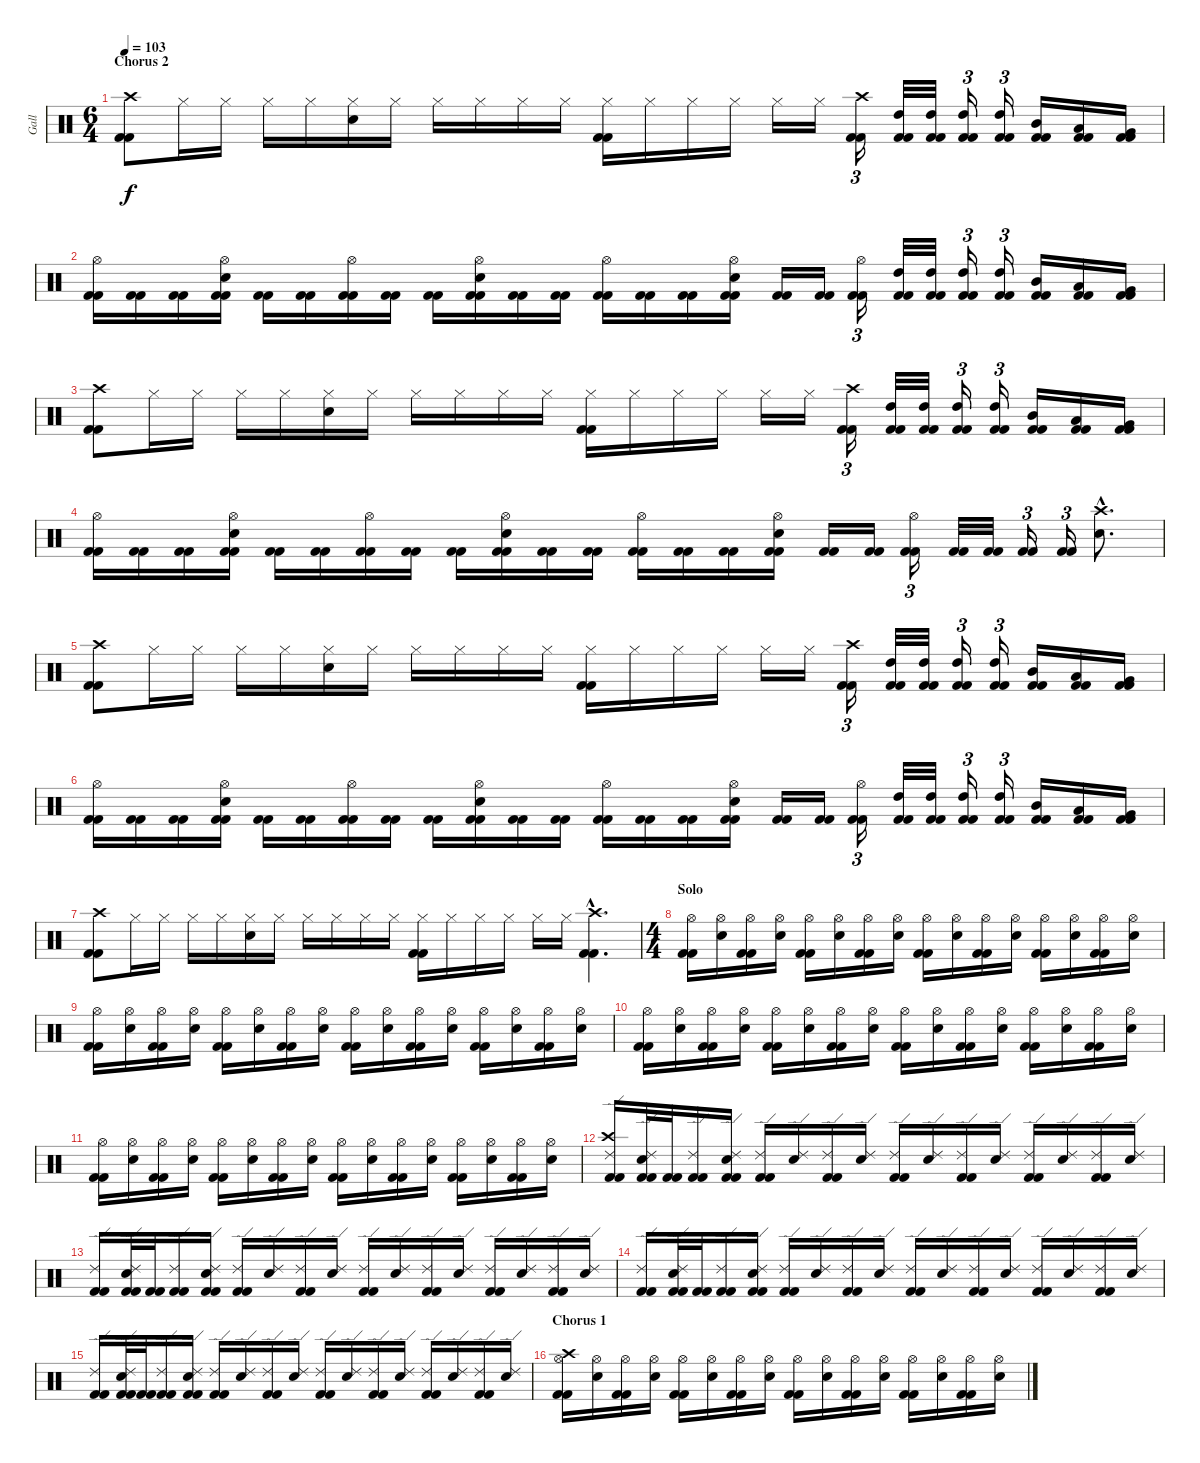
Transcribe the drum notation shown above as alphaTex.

\track ("Gall" "Gall") {instrument percussion}
\staff {score}
\articulation defaults
\ts (6 4)
\section ("" "Chorus 2")
\tempo 103
\clef neutral
\ks c
("Kick (hit) 2" "Kick (hit) 2" "Crash high (hit)").8{dy f} "Hi-Hat (closed)".16 "Hi-Hat (closed)".16 "Hi-Hat (closed)".16 "Hi-Hat (closed)".16 ("Snare (hit) 2" "Hi-Hat (closed)").16 "Hi-Hat (closed)".16 "Hi-Hat (closed)".16 "Hi-Hat (closed)".16 "Hi-Hat (closed)".16 "Hi-Hat (closed)".16 ("Kick (hit) 2" "Kick (hit) 2" "Hi-Hat (closed)").16 "Hi-Hat (closed)".16 "Hi-Hat (closed)".16 "Hi-Hat (closed)".16 "Hi-Hat (closed)".16 "Hi-Hat (closed)".16 ("Kick (hit) 2" "Kick (hit) 2" "Crash high (hit)").16{tu (3 2)} ("Kick (hit) 2" "Kick (hit) 2" "High Tom (hit)").32 ("Kick (hit) 2" "Kick (hit) 2" "High Tom (hit)").32 ("Kick (hit) 2" "Kick (hit) 2" "High Tom (hit)").16{tu (3 2)} ("Kick (hit) 2" "Kick (hit) 2" "High Tom (hit)").16{tu (3 2)} ("Kick (hit) 2" "Kick (hit) 2" "Mid Tom (hit)").16 ("Kick (hit) 2" "Kick (hit) 2" "Low Tom (hit)").16 ("Kick (hit) 2" "Kick (hit) 2" "Very Low Tom (hit)").16 |
("Kick (hit) 2" "Kick (hit) 2" "Hi-Hat (open)").16 ("Kick (hit) 2" "Kick (hit) 2").16 ("Kick (hit) 2" "Kick (hit) 2").16 ("Kick (hit) 2" "Kick (hit) 2" "Snare (hit) 2" "Hi-Hat (open)").16 ("Kick (hit) 2" "Kick (hit) 2").16 ("Kick (hit) 2" "Kick (hit) 2").16 ("Kick (hit) 2" "Kick (hit) 2" "Hi-Hat (open)").16 ("Kick (hit) 2" "Kick (hit) 2").16 ("Kick (hit) 2" "Kick (hit) 2").16 ("Kick (hit) 2" "Kick (hit) 2" "Snare (hit) 2" "Hi-Hat (open)").16 ("Kick (hit) 2" "Kick (hit) 2").16 ("Kick (hit) 2" "Kick (hit) 2").16 ("Kick (hit) 2" "Kick (hit) 2" "Hi-Hat (open)").16 ("Kick (hit) 2" "Kick (hit) 2").16 ("Kick (hit) 2" "Kick (hit) 2").16 ("Kick (hit) 2" "Kick (hit) 2" "Snare (hit) 2" "Hi-Hat (open)").16 ("Kick (hit) 2" "Kick (hit) 2").16 ("Kick (hit) 2" "Kick (hit) 2").16 ("Kick (hit) 2" "Kick (hit) 2" "Hi-Hat (open)").16{tu (3 2)} ("Kick (hit) 2" "Kick (hit) 2" "High Tom (hit)").32 ("Kick (hit) 2" "Kick (hit) 2" "High Tom (hit)").32 ("Kick (hit) 2" "Kick (hit) 2" "High Tom (hit)").16{tu (3 2)} ("Kick (hit) 2" "Kick (hit) 2" "High Tom (hit)").16{tu (3 2)} ("Kick (hit) 2" "Kick (hit) 2" "Mid Tom (hit)").16 ("Kick (hit) 2" "Kick (hit) 2" "Low Tom (hit)").16 ("Kick (hit) 2" "Kick (hit) 2" "Very Low Tom (hit)").16 |
("Kick (hit) 2" "Kick (hit) 2" "Crash high (hit)").8 "Hi-Hat (closed)".16 "Hi-Hat (closed)".16 "Hi-Hat (closed)".16 "Hi-Hat (closed)".16 ("Snare (hit) 2" "Hi-Hat (closed)").16 "Hi-Hat (closed)".16 "Hi-Hat (closed)".16 "Hi-Hat (closed)".16 "Hi-Hat (closed)".16 "Hi-Hat (closed)".16 ("Kick (hit) 2" "Kick (hit) 2" "Hi-Hat (closed)").16 "Hi-Hat (closed)".16 "Hi-Hat (closed)".16 "Hi-Hat (closed)".16 "Hi-Hat (closed)".16 "Hi-Hat (closed)".16 ("Kick (hit) 2" "Kick (hit) 2" "Crash high (hit)").16{tu (3 2)} ("Kick (hit) 2" "Kick (hit) 2" "High Tom (hit)").32 ("Kick (hit) 2" "Kick (hit) 2" "High Tom (hit)").32 ("Kick (hit) 2" "Kick (hit) 2" "High Tom (hit)").16{tu (3 2)} ("Kick (hit) 2" "Kick (hit) 2" "High Tom (hit)").16{tu (3 2)} ("Kick (hit) 2" "Kick (hit) 2" "Mid Tom (hit)").16 ("Kick (hit) 2" "Kick (hit) 2" "Low Tom (hit)").16 ("Kick (hit) 2" "Kick (hit) 2" "Very Low Tom (hit)").16 |
("Kick (hit) 2" "Kick (hit) 2" "Hi-Hat (open)").16 ("Kick (hit) 2" "Kick (hit) 2").16 ("Kick (hit) 2" "Kick (hit) 2").16 ("Kick (hit) 2" "Kick (hit) 2" "Snare (hit) 2" "Hi-Hat (open)").16 ("Kick (hit) 2" "Kick (hit) 2").16 ("Kick (hit) 2" "Kick (hit) 2").16 ("Kick (hit) 2" "Kick (hit) 2" "Hi-Hat (open)").16 ("Kick (hit) 2" "Kick (hit) 2").16 ("Kick (hit) 2" "Kick (hit) 2").16 ("Kick (hit) 2" "Kick (hit) 2" "Snare (hit) 2" "Hi-Hat (open)").16 ("Kick (hit) 2" "Kick (hit) 2").16 ("Kick (hit) 2" "Kick (hit) 2").16 ("Kick (hit) 2" "Kick (hit) 2" "Hi-Hat (open)").16 ("Kick (hit) 2" "Kick (hit) 2").16 ("Kick (hit) 2" "Kick (hit) 2").16 ("Kick (hit) 2" "Kick (hit) 2" "Snare (hit) 2" "Hi-Hat (open)").16 ("Kick (hit) 2" "Kick (hit) 2").16 ("Kick (hit) 2" "Kick (hit) 2").16 ("Kick (hit) 2" "Kick (hit) 2" "Hi-Hat (open)").16{tu (3 2)} ("Kick (hit) 2" "Kick (hit) 2").32 ("Kick (hit) 2" "Kick (hit) 2").32 ("Kick (hit) 2" "Kick (hit) 2").16{tu (3 2)} ("Kick (hit) 2" "Kick (hit) 2").16{tu (3 2)} ("Snare (hit) 2"{hac} "Crash high (hit)"{hac}).8{d} |
("Kick (hit) 2" "Kick (hit) 2" "Crash high (hit)").8 "Hi-Hat (closed)".16 "Hi-Hat (closed)".16 "Hi-Hat (closed)".16 "Hi-Hat (closed)".16 ("Snare (hit) 2" "Hi-Hat (closed)").16 "Hi-Hat (closed)".16 "Hi-Hat (closed)".16 "Hi-Hat (closed)".16 "Hi-Hat (closed)".16 "Hi-Hat (closed)".16 ("Kick (hit) 2" "Kick (hit) 2" "Hi-Hat (closed)").16 "Hi-Hat (closed)".16 "Hi-Hat (closed)".16 "Hi-Hat (closed)".16 "Hi-Hat (closed)".16 "Hi-Hat (closed)".16 ("Kick (hit) 2" "Kick (hit) 2" "Crash high (hit)").16{tu (3 2)} ("Kick (hit) 2" "Kick (hit) 2" "High Tom (hit)").32 ("Kick (hit) 2" "Kick (hit) 2" "High Tom (hit)").32 ("Kick (hit) 2" "Kick (hit) 2" "High Tom (hit)").16{tu (3 2)} ("Kick (hit) 2" "Kick (hit) 2" "High Tom (hit)").16{tu (3 2)} ("Kick (hit) 2" "Kick (hit) 2" "Mid Tom (hit)").16 ("Kick (hit) 2" "Kick (hit) 2" "Low Tom (hit)").16 ("Kick (hit) 2" "Kick (hit) 2" "Very Low Tom (hit)").16 |
("Kick (hit) 2" "Kick (hit) 2" "Hi-Hat (open)").16 ("Kick (hit) 2" "Kick (hit) 2").16 ("Kick (hit) 2" "Kick (hit) 2").16 ("Kick (hit) 2" "Kick (hit) 2" "Snare (hit) 2" "Hi-Hat (open)").16 ("Kick (hit) 2" "Kick (hit) 2").16 ("Kick (hit) 2" "Kick (hit) 2").16 ("Kick (hit) 2" "Kick (hit) 2" "Hi-Hat (open)").16 ("Kick (hit) 2" "Kick (hit) 2").16 ("Kick (hit) 2" "Kick (hit) 2").16 ("Kick (hit) 2" "Kick (hit) 2" "Snare (hit) 2" "Hi-Hat (open)").16 ("Kick (hit) 2" "Kick (hit) 2").16 ("Kick (hit) 2" "Kick (hit) 2").16 ("Kick (hit) 2" "Kick (hit) 2" "Hi-Hat (open)").16 ("Kick (hit) 2" "Kick (hit) 2").16 ("Kick (hit) 2" "Kick (hit) 2").16 ("Kick (hit) 2" "Kick (hit) 2" "Snare (hit) 2" "Hi-Hat (open)").16 ("Kick (hit) 2" "Kick (hit) 2").16 ("Kick (hit) 2" "Kick (hit) 2").16 ("Kick (hit) 2" "Kick (hit) 2" "Hi-Hat (open)").16{tu (3 2)} ("Kick (hit) 2" "Kick (hit) 2" "High Tom (hit)").32 ("Kick (hit) 2" "Kick (hit) 2" "High Tom (hit)").32 ("Kick (hit) 2" "Kick (hit) 2" "High Tom (hit)").16{tu (3 2)} ("Kick (hit) 2" "Kick (hit) 2" "High Tom (hit)").16{tu (3 2)} ("Kick (hit) 2" "Kick (hit) 2" "Mid Tom (hit)").16 ("Kick (hit) 2" "Kick (hit) 2" "Low Tom (hit)").16 ("Kick (hit) 2" "Kick (hit) 2" "Very Low Tom (hit)").16 |
("Kick (hit) 2" "Kick (hit) 2" "Crash high (hit)").8 "Hi-Hat (closed)".16 "Hi-Hat (closed)".16 "Hi-Hat (closed)".16 "Hi-Hat (closed)".16 ("Snare (hit) 2" "Hi-Hat (closed)").16 "Hi-Hat (closed)".16 "Hi-Hat (closed)".16 "Hi-Hat (closed)".16 "Hi-Hat (closed)".16 "Hi-Hat (closed)".16 ("Kick (hit) 2" "Kick (hit) 2" "Hi-Hat (closed)").16 "Hi-Hat (closed)".16 "Hi-Hat (closed)".16 "Hi-Hat (closed)".16 "Hi-Hat (closed)".16 "Hi-Hat (closed)".16 ("Kick (hit) 2"{hac} "Kick (hit) 2"{hac} "Crash high (hit)"{hac}).4{d} |
\ts (4 4)
\section ("" "Solo")
("Kick (hit) 2" "Kick (hit) 2" "Hi-Hat (open)").16 ("Snare (hit) 2" "Hi-Hat (open)").16 ("Kick (hit) 2" "Kick (hit) 2" "Hi-Hat (open)").16 ("Snare (hit) 2" "Hi-Hat (open)").16 ("Kick (hit) 2" "Kick (hit) 2" "Hi-Hat (open)").16 ("Snare (hit) 2" "Hi-Hat (open)").16 ("Kick (hit) 2" "Kick (hit) 2" "Hi-Hat (open)").16 ("Snare (hit) 2" "Hi-Hat (open)").16 ("Kick (hit) 2" "Kick (hit) 2" "Hi-Hat (open)").16 ("Snare (hit) 2" "Hi-Hat (open)").16 ("Kick (hit) 2" "Kick (hit) 2" "Hi-Hat (open)").16 ("Snare (hit) 2" "Hi-Hat (open)").16 ("Kick (hit) 2" "Kick (hit) 2" "Hi-Hat (open)").16 ("Snare (hit) 2" "Hi-Hat (open)").16 ("Kick (hit) 2" "Kick (hit) 2" "Hi-Hat (open)").16 ("Snare (hit) 2" "Hi-Hat (open)").16 |
("Kick (hit) 2" "Kick (hit) 2" "Hi-Hat (open)").16 ("Snare (hit) 2" "Hi-Hat (open)").16 ("Kick (hit) 2" "Kick (hit) 2" "Hi-Hat (open)").16 ("Snare (hit) 2" "Hi-Hat (open)").16 ("Kick (hit) 2" "Kick (hit) 2" "Hi-Hat (open)").16 ("Snare (hit) 2" "Hi-Hat (open)").16 ("Kick (hit) 2" "Kick (hit) 2" "Hi-Hat (open)").16 ("Snare (hit) 2" "Hi-Hat (open)").16 ("Kick (hit) 2" "Kick (hit) 2" "Hi-Hat (open)").16 ("Snare (hit) 2" "Hi-Hat (open)").16 ("Kick (hit) 2" "Kick (hit) 2" "Hi-Hat (open)").16 ("Snare (hit) 2" "Hi-Hat (open)").16 ("Kick (hit) 2" "Kick (hit) 2" "Hi-Hat (open)").16 ("Snare (hit) 2" "Hi-Hat (open)").16 ("Kick (hit) 2" "Kick (hit) 2" "Hi-Hat (open)").16 ("Snare (hit) 2" "Hi-Hat (open)").16 |
("Kick (hit) 2" "Kick (hit) 2" "Hi-Hat (open)").16 ("Snare (hit) 2" "Hi-Hat (open)").16 ("Kick (hit) 2" "Kick (hit) 2" "Hi-Hat (open)").16 ("Snare (hit) 2" "Hi-Hat (open)").16 ("Kick (hit) 2" "Kick (hit) 2" "Hi-Hat (open)").16 ("Snare (hit) 2" "Hi-Hat (open)").16 ("Kick (hit) 2" "Kick (hit) 2" "Hi-Hat (open)").16 ("Snare (hit) 2" "Hi-Hat (open)").16 ("Kick (hit) 2" "Kick (hit) 2" "Hi-Hat (open)").16 ("Snare (hit) 2" "Hi-Hat (open)").16 ("Kick (hit) 2" "Kick (hit) 2" "Hi-Hat (open)").16 ("Snare (hit) 2" "Hi-Hat (open)").16 ("Kick (hit) 2" "Kick (hit) 2" "Hi-Hat (open)").16 ("Snare (hit) 2" "Hi-Hat (open)").16 ("Kick (hit) 2" "Kick (hit) 2" "Hi-Hat (open)").16 ("Snare (hit) 2" "Hi-Hat (open)").16 |
("Kick (hit) 2" "Kick (hit) 2" "Hi-Hat (open)").16 ("Snare (hit) 2" "Hi-Hat (open)").16 ("Kick (hit) 2" "Kick (hit) 2" "Hi-Hat (open)").16 ("Snare (hit) 2" "Hi-Hat (open)").16 ("Kick (hit) 2" "Kick (hit) 2" "Hi-Hat (open)").16 ("Snare (hit) 2" "Hi-Hat (open)").16 ("Kick (hit) 2" "Kick (hit) 2" "Hi-Hat (open)").16 ("Snare (hit) 2" "Hi-Hat (open)").16 ("Kick (hit) 2" "Kick (hit) 2" "Hi-Hat (open)").16 ("Snare (hit) 2" "Hi-Hat (open)").16 ("Kick (hit) 2" "Kick (hit) 2" "Hi-Hat (open)").16 ("Snare (hit) 2" "Hi-Hat (open)").16 ("Kick (hit) 2" "Kick (hit) 2" "Hi-Hat (open)").16 ("Snare (hit) 2" "Hi-Hat (open)").16 ("Kick (hit) 2" "Kick (hit) 2" "Hi-Hat (open)").16 ("Snare (hit) 2" "Hi-Hat (open)").16 |
("Kick (hit) 2" "Kick (hit) 2" "Ride (edge) 2" "Crash high (hit)").16 ("Kick (hit) 2" "Kick (hit) 2" "Snare (hit) 2" "Ride (edge) 2").32 ("Kick (hit) 2" "Kick (hit) 2").32 ("Kick (hit) 2" "Kick (hit) 2" "Ride (edge) 2").16 ("Kick (hit) 2" "Kick (hit) 2" "Snare (hit) 2" "Ride (edge) 2").16 ("Kick (hit) 2" "Kick (hit) 2" "Ride (edge) 2").16 ("Snare (hit) 2" "Ride (edge) 2").16 ("Kick (hit) 2" "Kick (hit) 2" "Ride (edge) 2").16 ("Snare (hit) 2" "Ride (edge) 2").16 ("Kick (hit) 2" "Kick (hit) 2" "Ride (edge) 2").16 ("Snare (hit) 2" "Ride (edge) 2").16 ("Kick (hit) 2" "Kick (hit) 2" "Ride (edge) 2").16 ("Snare (hit) 2" "Ride (edge) 2").16 ("Kick (hit) 2" "Kick (hit) 2" "Ride (edge) 2").16 ("Snare (hit) 2" "Ride (edge) 2").16 ("Kick (hit) 2" "Kick (hit) 2" "Ride (edge) 2").16 ("Snare (hit) 2" "Ride (edge) 2").16 |
("Kick (hit) 2" "Kick (hit) 2" "Ride (edge) 2").16 ("Kick (hit) 2" "Kick (hit) 2" "Snare (hit) 2" "Ride (edge) 2").32 ("Kick (hit) 2" "Kick (hit) 2").32 ("Kick (hit) 2" "Kick (hit) 2" "Ride (edge) 2").16 ("Kick (hit) 2" "Kick (hit) 2" "Snare (hit) 2" "Ride (edge) 2").16 ("Kick (hit) 2" "Kick (hit) 2" "Ride (edge) 2").16 ("Snare (hit) 2" "Ride (edge) 2").16 ("Kick (hit) 2" "Kick (hit) 2" "Ride (edge) 2").16 ("Snare (hit) 2" "Ride (edge) 2").16 ("Kick (hit) 2" "Kick (hit) 2" "Ride (edge) 2").16 ("Snare (hit) 2" "Ride (edge) 2").16 ("Kick (hit) 2" "Kick (hit) 2" "Ride (edge) 2").16 ("Snare (hit) 2" "Ride (edge) 2").16 ("Kick (hit) 2" "Kick (hit) 2" "Ride (edge) 2").16 ("Snare (hit) 2" "Ride (edge) 2").16 ("Kick (hit) 2" "Kick (hit) 2" "Ride (edge) 2").16 ("Snare (hit) 2" "Ride (edge) 2").16 |
("Kick (hit) 2" "Kick (hit) 2" "Ride (edge) 2").16 ("Kick (hit) 2" "Kick (hit) 2" "Snare (hit) 2" "Ride (edge) 2").32 ("Kick (hit) 2" "Kick (hit) 2").32 ("Kick (hit) 2" "Kick (hit) 2" "Ride (edge) 2").16 ("Kick (hit) 2" "Kick (hit) 2" "Snare (hit) 2" "Ride (edge) 2").16 ("Kick (hit) 2" "Kick (hit) 2" "Ride (edge) 2").16 ("Snare (hit) 2" "Ride (edge) 2").16 ("Kick (hit) 2" "Kick (hit) 2" "Ride (edge) 2").16 ("Snare (hit) 2" "Ride (edge) 2").16 ("Kick (hit) 2" "Kick (hit) 2" "Ride (edge) 2").16 ("Snare (hit) 2" "Ride (edge) 2").16 ("Kick (hit) 2" "Kick (hit) 2" "Ride (edge) 2").16 ("Snare (hit) 2" "Ride (edge) 2").16 ("Kick (hit) 2" "Kick (hit) 2" "Ride (edge) 2").16 ("Snare (hit) 2" "Ride (edge) 2").16 ("Kick (hit) 2" "Kick (hit) 2" "Ride (edge) 2").16 ("Snare (hit) 2" "Ride (edge) 2").16 |
("Kick (hit) 2" "Kick (hit) 2" "Ride (edge) 2").16 ("Kick (hit) 2" "Kick (hit) 2" "Snare (hit) 2" "Ride (edge) 2").32 ("Kick (hit) 2" "Kick (hit) 2").32 ("Kick (hit) 2" "Kick (hit) 2" "Ride (edge) 2").16 ("Kick (hit) 2" "Kick (hit) 2" "Snare (hit) 2" "Ride (edge) 2").16 ("Kick (hit) 2" "Kick (hit) 2" "Ride (edge) 2").16 ("Snare (hit) 2" "Ride (edge) 2").16 ("Kick (hit) 2" "Kick (hit) 2" "Ride (edge) 2").16 ("Snare (hit) 2" "Ride (edge) 2").16 ("Kick (hit) 2" "Kick (hit) 2" "Ride (edge) 2").16 ("Snare (hit) 2" "Ride (edge) 2").16 ("Kick (hit) 2" "Kick (hit) 2" "Ride (edge) 2").16 ("Snare (hit) 2" "Ride (edge) 2").16 ("Kick (hit) 2" "Kick (hit) 2" "Ride (edge) 2").16 ("Snare (hit) 2" "Ride (edge) 2").16 ("Kick (hit) 2" "Kick (hit) 2" "Ride (edge) 2").16 ("Snare (hit) 2" "Ride (edge) 2").16 |
\section ("" "Chorus 1")
("Kick (hit) 2" "Kick (hit) 2" "Hi-Hat (open)" "Crash high (hit)").16 ("Snare (hit) 2" "Hi-Hat (open)").16 ("Kick (hit) 2" "Kick (hit) 2" "Hi-Hat (open)").16 ("Snare (hit) 2" "Hi-Hat (open)").16 ("Kick (hit) 2" "Kick (hit) 2" "Hi-Hat (open)").16 ("Snare (hit) 2" "Hi-Hat (open)").16 ("Kick (hit) 2" "Kick (hit) 2" "Hi-Hat (open)").16 ("Snare (hit) 2" "Hi-Hat (open)").16 ("Kick (hit) 2" "Kick (hit) 2" "Hi-Hat (open)").16 ("Snare (hit) 2" "Hi-Hat (open)").16 ("Kick (hit) 2" "Kick (hit) 2" "Hi-Hat (open)").16 ("Snare (hit) 2" "Hi-Hat (open)").16 ("Kick (hit) 2" "Kick (hit) 2" "Hi-Hat (open)").16 ("Snare (hit) 2" "Hi-Hat (open)").16 ("Kick (hit) 2" "Kick (hit) 2" "Hi-Hat (open)").16 ("Snare (hit) 2" "Hi-Hat (open)").16
